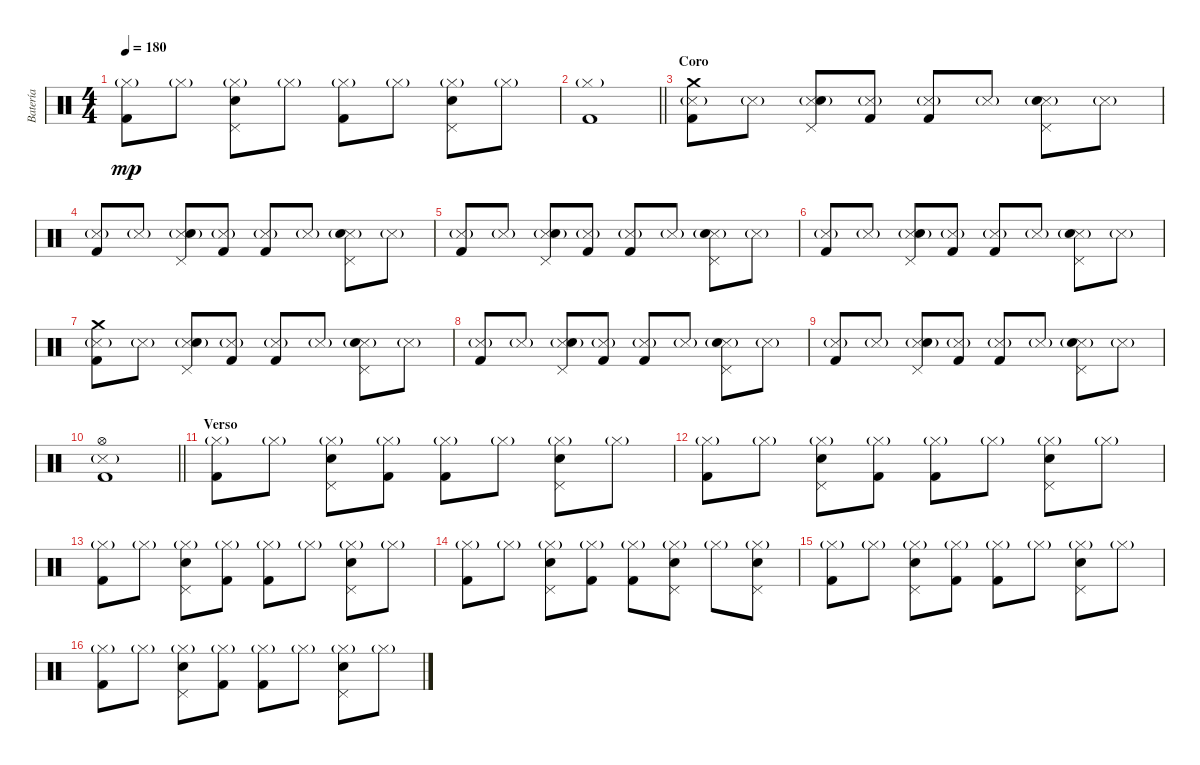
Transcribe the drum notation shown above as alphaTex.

\track ("Batería" "Batería") {instrument percussion}
\staff {score}
\articulation defaults
\ts (4 4)
\tempo 180
\clef neutral
\ks c
("Hi-Hat (closed)"{g} "Kick (hit) 2").8{dy mp} "Hi-Hat (closed)"{g}.8 ("Hi-Hat (closed)"{g} "Electric Snare (hit)" "Pedal Hi-Hat (hit)").8 "Hi-Hat (closed)"{g}.8 ("Hi-Hat (closed)"{g} "Kick (hit) 2").8 "Hi-Hat (closed)"{g}.8 ("Hi-Hat (closed)"{g} "Electric Snare (hit)" "Pedal Hi-Hat (hit)").8 "Hi-Hat (closed)"{g}.8 |
\barLineRight lightlight
("Hi-Hat (closed)"{g} "Kick (hit) 2").1 |
\section ("" "Coro")
("Snare (side stick) 3"{g} "Kick (hit) 2" "Crash medium (hit)").8 "Snare (side stick) 3"{g}.8 ("Snare (side stick) 3"{g} "Electric Snare (hit)" "Pedal Hi-Hat (hit)").8 ("Snare (side stick) 3"{g} "Kick (hit) 2").8 ("Snare (side stick) 3"{g} "Kick (hit) 2").8 "Snare (side stick) 3"{g}.8 ("Snare (side stick) 3"{g} "Electric Snare (hit)" "Pedal Hi-Hat (hit)").8 "Snare (side stick) 3"{g}.8 |
("Snare (side stick) 3"{g} "Kick (hit) 2").8 "Snare (side stick) 3"{g}.8 ("Snare (side stick) 3"{g} "Electric Snare (hit)" "Pedal Hi-Hat (hit)").8 ("Snare (side stick) 3"{g} "Kick (hit) 2").8 ("Snare (side stick) 3"{g} "Kick (hit) 2").8 "Snare (side stick) 3"{g}.8 ("Snare (side stick) 3"{g} "Electric Snare (hit)" "Pedal Hi-Hat (hit)").8 "Snare (side stick) 3"{g}.8 |
("Snare (side stick) 3"{g} "Kick (hit) 2").8 "Snare (side stick) 3"{g}.8 ("Snare (side stick) 3"{g} "Electric Snare (hit)" "Pedal Hi-Hat (hit)").8 ("Snare (side stick) 3"{g} "Kick (hit) 2").8 ("Snare (side stick) 3"{g} "Kick (hit) 2").8 "Snare (side stick) 3"{g}.8 ("Snare (side stick) 3"{g} "Electric Snare (hit)" "Pedal Hi-Hat (hit)").8 "Snare (side stick) 3"{g}.8 |
("Snare (side stick) 3"{g} "Kick (hit) 2").8 "Snare (side stick) 3"{g}.8 ("Snare (side stick) 3"{g} "Electric Snare (hit)" "Pedal Hi-Hat (hit)").8 ("Snare (side stick) 3"{g} "Kick (hit) 2").8 ("Snare (side stick) 3"{g} "Kick (hit) 2").8 "Snare (side stick) 3"{g}.8 ("Snare (side stick) 3"{g} "Electric Snare (hit)" "Pedal Hi-Hat (hit)").8 "Snare (side stick) 3"{g}.8 |
("Snare (side stick) 3"{g} "Kick (hit) 2" "Crash medium (hit)").8 "Snare (side stick) 3"{g}.8 ("Snare (side stick) 3"{g} "Electric Snare (hit)" "Pedal Hi-Hat (hit)").8 ("Snare (side stick) 3"{g} "Kick (hit) 2").8 ("Snare (side stick) 3"{g} "Kick (hit) 2").8 "Snare (side stick) 3"{g}.8 ("Snare (side stick) 3"{g} "Electric Snare (hit)" "Pedal Hi-Hat (hit)").8 "Snare (side stick) 3"{g}.8 |
("Snare (side stick) 3"{g} "Kick (hit) 2").8 "Snare (side stick) 3"{g}.8 ("Snare (side stick) 3"{g} "Electric Snare (hit)" "Pedal Hi-Hat (hit)").8 ("Snare (side stick) 3"{g} "Kick (hit) 2").8 ("Snare (side stick) 3"{g} "Kick (hit) 2").8 "Snare (side stick) 3"{g}.8 ("Snare (side stick) 3"{g} "Electric Snare (hit)" "Pedal Hi-Hat (hit)").8 "Snare (side stick) 3"{g}.8 |
("Snare (side stick) 3"{g} "Kick (hit) 2").8 "Snare (side stick) 3"{g}.8 ("Snare (side stick) 3"{g} "Electric Snare (hit)" "Pedal Hi-Hat (hit)").8 ("Snare (side stick) 3"{g} "Kick (hit) 2").8 ("Snare (side stick) 3"{g} "Kick (hit) 2").8 "Snare (side stick) 3"{g}.8 ("Snare (side stick) 3"{g} "Electric Snare (hit)" "Pedal Hi-Hat (hit)").8 "Snare (side stick) 3"{g}.8 |
\barLineRight lightlight
("Snare (side stick) 3"{g} "Kick (hit) 2" "Hi-Hat (open)").1 |
\section ("" "Verso")
("Hi-Hat (closed)"{g} "Kick (hit) 2").8 "Hi-Hat (closed)"{g}.8 ("Hi-Hat (closed)"{g} "Electric Snare (hit)" "Pedal Hi-Hat (hit)").8 ("Hi-Hat (closed)"{g} "Kick (hit) 2").8 ("Hi-Hat (closed)"{g} "Kick (hit) 2").8 "Hi-Hat (closed)"{g}.8 ("Hi-Hat (closed)"{g} "Electric Snare (hit)" "Pedal Hi-Hat (hit)").8 "Hi-Hat (closed)"{g}.8 |
("Hi-Hat (closed)"{g} "Kick (hit) 2").8 "Hi-Hat (closed)"{g}.8 ("Hi-Hat (closed)"{g} "Electric Snare (hit)" "Pedal Hi-Hat (hit)").8 ("Hi-Hat (closed)"{g} "Kick (hit) 2").8 ("Hi-Hat (closed)"{g} "Kick (hit) 2").8 "Hi-Hat (closed)"{g}.8 ("Hi-Hat (closed)"{g} "Electric Snare (hit)" "Pedal Hi-Hat (hit)").8 "Hi-Hat (closed)"{g}.8 |
("Hi-Hat (closed)"{g} "Kick (hit) 2").8 "Hi-Hat (closed)"{g}.8 ("Hi-Hat (closed)"{g} "Electric Snare (hit)" "Pedal Hi-Hat (hit)").8 ("Hi-Hat (closed)"{g} "Kick (hit) 2").8 ("Hi-Hat (closed)"{g} "Kick (hit) 2").8 "Hi-Hat (closed)"{g}.8 ("Hi-Hat (closed)"{g} "Electric Snare (hit)" "Pedal Hi-Hat (hit)").8 "Hi-Hat (closed)"{g}.8 |
("Hi-Hat (closed)"{g} "Kick (hit) 2").8 "Hi-Hat (closed)"{g}.8 ("Hi-Hat (closed)"{g} "Electric Snare (hit)" "Pedal Hi-Hat (hit)").8 ("Hi-Hat (closed)"{g} "Kick (hit) 2").8 ("Hi-Hat (closed)"{g} "Kick (hit) 2").8 ("Hi-Hat (closed)"{g} "Electric Snare (hit)" "Pedal Hi-Hat (hit)").8 "Hi-Hat (closed)"{g}.8 ("Hi-Hat (closed)"{g} "Electric Snare (hit)" "Pedal Hi-Hat (hit)").8 |
("Hi-Hat (closed)"{g} "Kick (hit) 2").8 "Hi-Hat (closed)"{g}.8 ("Hi-Hat (closed)"{g} "Electric Snare (hit)" "Pedal Hi-Hat (hit)").8 ("Hi-Hat (closed)"{g} "Kick (hit) 2").8 ("Hi-Hat (closed)"{g} "Kick (hit) 2").8 "Hi-Hat (closed)"{g}.8 ("Hi-Hat (closed)"{g} "Electric Snare (hit)" "Pedal Hi-Hat (hit)").8 "Hi-Hat (closed)"{g}.8 |
("Hi-Hat (closed)"{g} "Kick (hit) 2").8 "Hi-Hat (closed)"{g}.8 ("Hi-Hat (closed)"{g} "Electric Snare (hit)" "Pedal Hi-Hat (hit)").8 ("Hi-Hat (closed)"{g} "Kick (hit) 2").8 ("Hi-Hat (closed)"{g} "Kick (hit) 2").8 "Hi-Hat (closed)"{g}.8 ("Hi-Hat (closed)"{g} "Electric Snare (hit)" "Pedal Hi-Hat (hit)").8 "Hi-Hat (closed)"{g}.8
